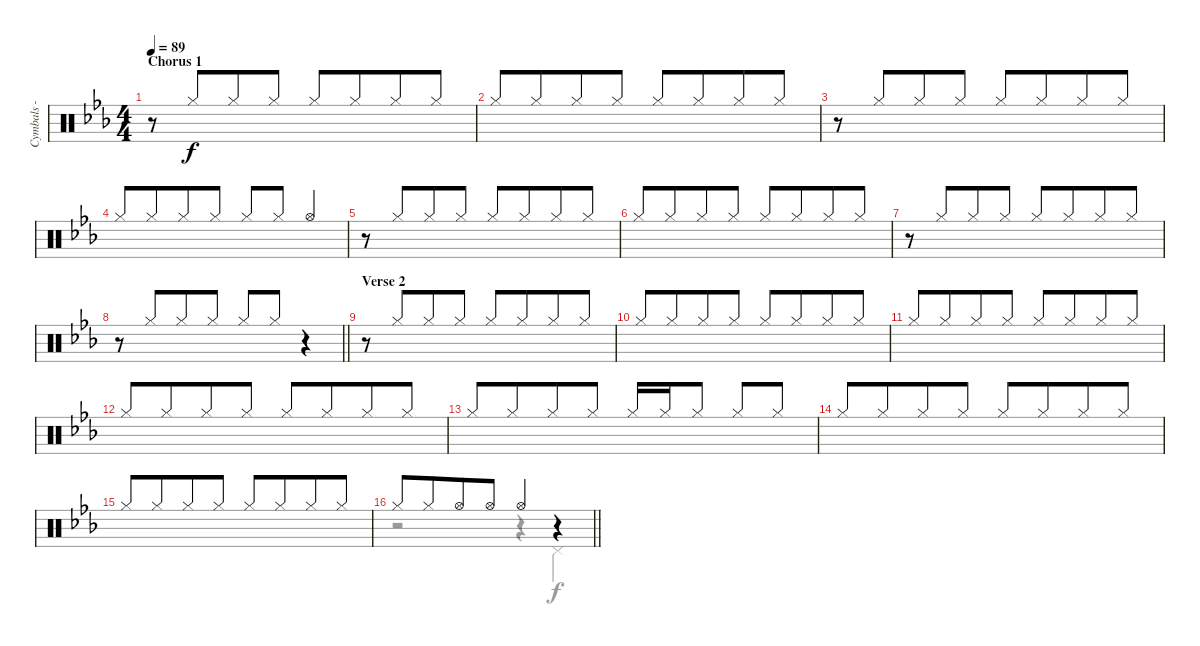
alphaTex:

\track ("Cymbals - hi-hat" "Cymbals - ") {instrument percussion}
\staff {score}
\articulation defaults
\voice
\ts (4 4)
\section ("" "Chorus 1")
\tempo 89
\clef neutral
\ks eb
r.8{dy f} "Hi-Hat (closed)".8{beam Up beam merge} "Hi-Hat (closed)".8{beam Up} "Hi-Hat (closed)".8{beam Up} "Hi-Hat (closed)".8{beam Up} "Hi-Hat (closed)".8{beam Up beam merge} "Hi-Hat (closed)".8{beam Up} "Hi-Hat (closed)".8{beam Up} |
"Hi-Hat (closed)".8{beam Up} "Hi-Hat (closed)".8{beam Up beam merge} "Hi-Hat (closed)".8{beam Up} "Hi-Hat (closed)".8{beam Up} "Hi-Hat (closed)".8{beam Up} "Hi-Hat (closed)".8{beam Up beam merge} "Hi-Hat (closed)".8{beam Up} "Hi-Hat (closed)".8{beam Up} |
r.8 "Hi-Hat (closed)".8{beam Up beam merge} "Hi-Hat (closed)".8{beam Up} "Hi-Hat (closed)".8{beam Up} "Hi-Hat (closed)".8{beam Up} "Hi-Hat (closed)".8{beam Up beam merge} "Hi-Hat (closed)".8{beam Up} "Hi-Hat (closed)".8{beam Up} |
"Hi-Hat (closed)".8{beam Up} "Hi-Hat (closed)".8{beam Up beam merge} "Hi-Hat (closed)".8{beam Up} "Hi-Hat (closed)".8{beam Up} "Hi-Hat (closed)".8{beam Up} "Hi-Hat (closed)".8{beam Up} "Hi-Hat (open)".4{beam Up} |
r.8 "Hi-Hat (closed)".8{beam Up beam merge} "Hi-Hat (closed)".8{beam Up} "Hi-Hat (closed)".8{beam Up} "Hi-Hat (closed)".8{beam Up} "Hi-Hat (closed)".8{beam Up beam merge} "Hi-Hat (closed)".8{beam Up} "Hi-Hat (closed)".8{beam Up} |
"Hi-Hat (closed)".8{beam Up} "Hi-Hat (closed)".8{beam Up beam merge} "Hi-Hat (closed)".8{beam Up} "Hi-Hat (closed)".8{beam Up} "Hi-Hat (closed)".8{beam Up} "Hi-Hat (closed)".8{beam Up beam merge} "Hi-Hat (closed)".8{beam Up} "Hi-Hat (closed)".8{beam Up} |
r.8 "Hi-Hat (closed)".8{beam Up beam merge} "Hi-Hat (closed)".8{beam Up} "Hi-Hat (closed)".8{beam Up} "Hi-Hat (closed)".8{beam Up} "Hi-Hat (closed)".8{beam Up beam merge} "Hi-Hat (closed)".8{beam Up} "Hi-Hat (closed)".8{beam Up} |
\barLineRight lightlight
r.8 "Hi-Hat (closed)".8{beam Up beam merge} "Hi-Hat (closed)".8{beam Up} "Hi-Hat (closed)".8{beam Up} "Hi-Hat (closed)".8{beam Up} "Hi-Hat (closed)".8{beam Up} r.4 |
\section ("" "Verse 2")
r.8 "Hi-Hat (closed)".8{beam Up beam merge} "Hi-Hat (closed)".8{beam Up} "Hi-Hat (closed)".8{beam Up} "Hi-Hat (closed)".8{beam Up} "Hi-Hat (closed)".8{beam Up beam merge} "Hi-Hat (closed)".8{beam Up} "Hi-Hat (closed)".8{beam Up} |
"Hi-Hat (closed)".8{beam Up} "Hi-Hat (closed)".8{beam Up beam merge} "Hi-Hat (closed)".8{beam Up} "Hi-Hat (closed)".8{beam Up} "Hi-Hat (closed)".8{beam Up} "Hi-Hat (closed)".8{beam Up beam merge} "Hi-Hat (closed)".8{beam Up} "Hi-Hat (closed)".8{beam Up} |
"Hi-Hat (closed)".8{beam Up} "Hi-Hat (closed)".8{beam Up beam merge} "Hi-Hat (closed)".8{beam Up} "Hi-Hat (closed)".8{beam Up} "Hi-Hat (closed)".8{beam Up} "Hi-Hat (closed)".8{beam Up beam merge} "Hi-Hat (closed)".8{beam Up} "Hi-Hat (closed)".8{beam Up} |
"Hi-Hat (closed)".8{beam Up} "Hi-Hat (closed)".8{beam Up beam merge} "Hi-Hat (closed)".8{beam Up} "Hi-Hat (closed)".8{beam Up} "Hi-Hat (closed)".8{beam Up} "Hi-Hat (closed)".8{beam Up beam merge} "Hi-Hat (closed)".8{beam Up} "Hi-Hat (closed)".8{beam Up} |
"Hi-Hat (closed)".8{beam Up} "Hi-Hat (closed)".8{beam Up beam merge} "Hi-Hat (closed)".8{beam Up} "Hi-Hat (closed)".8{beam Up} "Hi-Hat (closed)".16{beam Up} "Hi-Hat (closed)".16{beam Up} "Hi-Hat (closed)".8{beam Up beam split} "Hi-Hat (closed)".8{beam Up} "Hi-Hat (closed)".8{beam Up} |
"Hi-Hat (closed)".8{beam Up} "Hi-Hat (closed)".8{beam Up beam merge} "Hi-Hat (closed)".8{beam Up} "Hi-Hat (closed)".8{beam Up} "Hi-Hat (closed)".8{beam Up} "Hi-Hat (closed)".8{beam Up beam merge} "Hi-Hat (closed)".8{beam Up} "Hi-Hat (closed)".8{beam Up} |
"Hi-Hat (closed)".8{beam Up} "Hi-Hat (closed)".8{beam Up beam merge} "Hi-Hat (closed)".8{beam Up} "Hi-Hat (closed)".8{beam Up} "Hi-Hat (closed)".8{beam Up} "Hi-Hat (closed)".8{beam Up beam merge} "Hi-Hat (closed)".8{beam Up} "Hi-Hat (closed)".8{beam Up} |
\barLineRight lightlight "Hi-Hat (closed)".8 "Hi-Hat (closed)".8{beam merge} "Hi-Hat (open)".8 "Hi-Hat (open)".8 "Hi-Hat (open)".4
r.4
\voice
\clef neutral
\ottava regular
\simile none
\ks eb
|
|
|
|
|
|
|
\barLineRight lightlight
|
|
|
|
|
|
|
|
\barLineRight lightlight
r.2 r.4 "Pedal Hi-Hat (hit)".4
